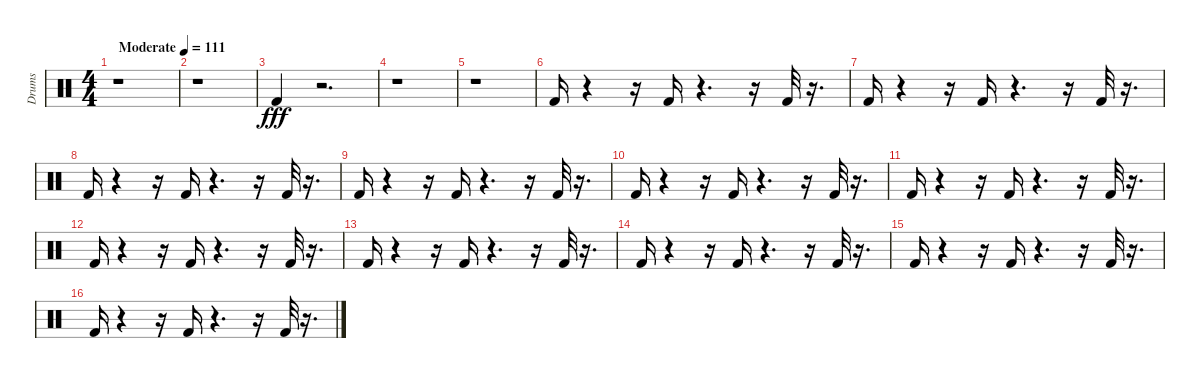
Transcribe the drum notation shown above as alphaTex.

\track ("Drums" "Drums") {instrument percussion}
\staff {score}
\articulation defaults
\ts (4 4)
\tempo (111 "Moderate")
\clef neutral
\ks c
r.1{dy fff} |
r.1 |
"Kick (hit) 2".4 r.2{d} |
r.1 |
r.1 |
"Kick (hit) 2".16 r.4 r.16 "Kick (hit) 2".16 r.4{d} r.16 "Kick (hit) 2".32 r.16{d} |
"Kick (hit) 2".16 r.4 r.16 "Kick (hit) 2".16 r.4{d} r.16 "Kick (hit) 2".32 r.16{d} |
"Kick (hit) 2".16 r.4 r.16 "Kick (hit) 2".16 r.4{d} r.16 "Kick (hit) 2".32 r.16{d} |
"Kick (hit) 2".16 r.4 r.16 "Kick (hit) 2".16 r.4{d} r.16 "Kick (hit) 2".32 r.16{d} |
"Kick (hit) 2".16 r.4 r.16 "Kick (hit) 2".16 r.4{d} r.16 "Kick (hit) 2".32 r.16{d} |
"Kick (hit) 2".16 r.4 r.16 "Kick (hit) 2".16 r.4{d} r.16 "Kick (hit) 2".32 r.16{d} |
"Kick (hit) 2".16 r.4 r.16 "Kick (hit) 2".16 r.4{d} r.16 "Kick (hit) 2".32 r.16{d} |
"Kick (hit) 2".16 r.4 r.16 "Kick (hit) 2".16 r.4{d} r.16 "Kick (hit) 2".32 r.16{d} |
"Kick (hit) 2".16 r.4 r.16 "Kick (hit) 2".16 r.4{d} r.16 "Kick (hit) 2".32 r.16{d} |
"Kick (hit) 2".16 r.4 r.16 "Kick (hit) 2".16 r.4{d} r.16 "Kick (hit) 2".32 r.16{d} |
"Kick (hit) 2".16 r.4 r.16 "Kick (hit) 2".16 r.4{d} r.16 "Kick (hit) 2".32 r.16{d}
